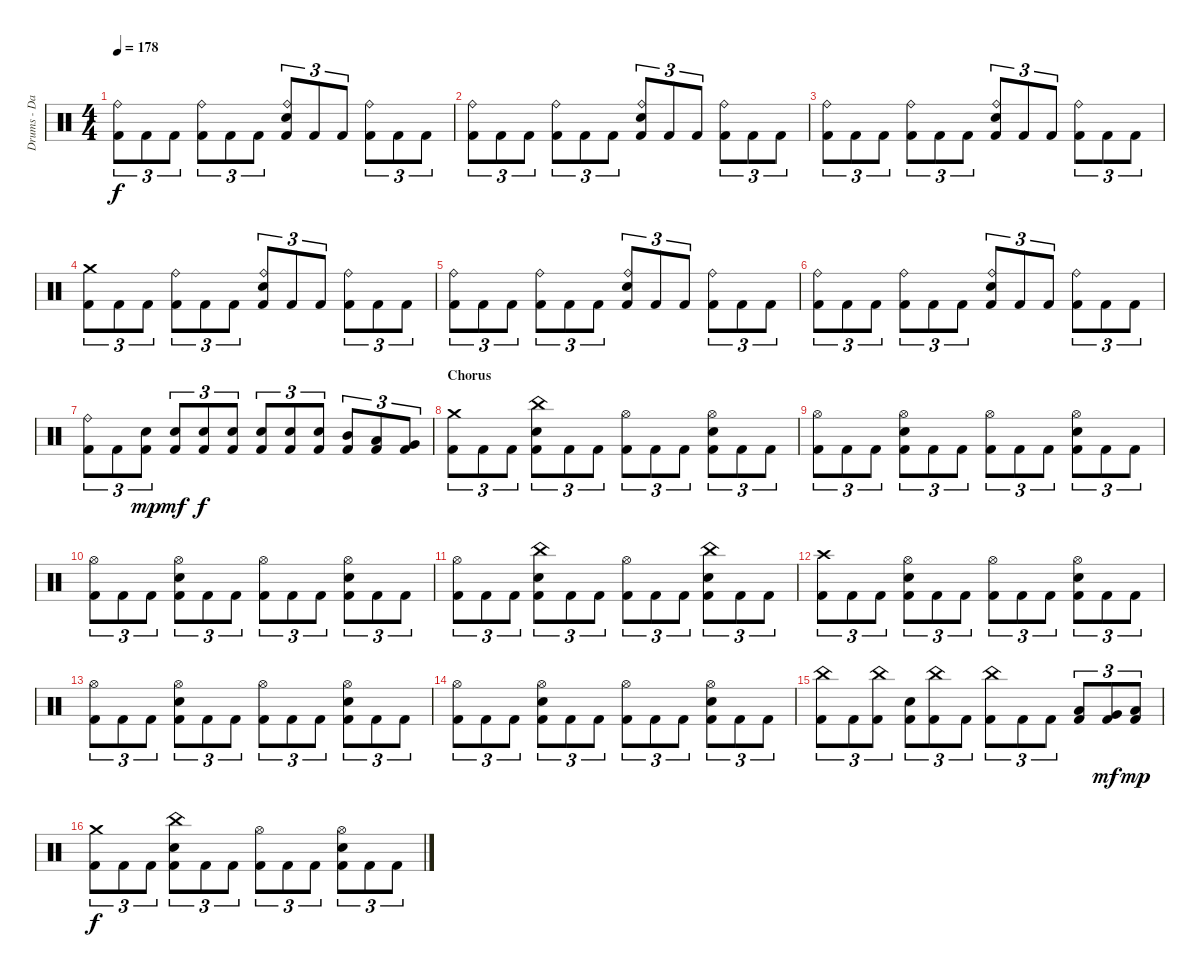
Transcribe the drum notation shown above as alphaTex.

\track ("Drums - Dan Zimmermann" "Drums - Da") {instrument percussion}
\staff {score}
\articulation defaults
\ts (4 4)
\tempo 178
\clef neutral
\ks c
("Kick (hit) 2" "Ride (bell)").8{tu (3 2) dy f} "Kick (hit) 2".8{tu (3 2)} "Kick (hit) 2".8{tu (3 2)} ("Kick (hit) 2" "Ride (bell)").8{tu (3 2)} "Kick (hit) 2".8{tu (3 2)} "Kick (hit) 2".8{tu (3 2)} ("Kick (hit) 2" "Electric Snare (hit)" "Ride (bell)").8{tu (3 2)} "Kick (hit) 2".8{tu (3 2)} "Kick (hit) 2".8{tu (3 2)} ("Kick (hit) 2" "Ride (bell)").8{tu (3 2)} "Kick (hit) 2".8{tu (3 2)} "Kick (hit) 2".8{tu (3 2)} |
("Kick (hit) 2" "Ride (bell)").8{tu (3 2)} "Kick (hit) 2".8{tu (3 2)} "Kick (hit) 2".8{tu (3 2)} ("Kick (hit) 2" "Ride (bell)").8{tu (3 2)} "Kick (hit) 2".8{tu (3 2)} "Kick (hit) 2".8{tu (3 2)} ("Kick (hit) 2" "Electric Snare (hit)" "Ride (bell)").8{tu (3 2)} "Kick (hit) 2".8{tu (3 2)} "Kick (hit) 2".8{tu (3 2)} ("Kick (hit) 2" "Ride (bell)").8{tu (3 2)} "Kick (hit) 2".8{tu (3 2)} "Kick (hit) 2".8{tu (3 2)} |
("Kick (hit) 2" "Ride (bell)").8{tu (3 2)} "Kick (hit) 2".8{tu (3 2)} "Kick (hit) 2".8{tu (3 2)} ("Kick (hit) 2" "Ride (bell)").8{tu (3 2)} "Kick (hit) 2".8{tu (3 2)} "Kick (hit) 2".8{tu (3 2)} ("Kick (hit) 2" "Electric Snare (hit)" "Ride (bell)").8{tu (3 2)} "Kick (hit) 2".8{tu (3 2)} "Kick (hit) 2".8{tu (3 2)} ("Kick (hit) 2" "Ride (bell)").8{tu (3 2)} "Kick (hit) 2".8{tu (3 2)} "Kick (hit) 2".8{tu (3 2)} |
("Kick (hit) 2" "Crash medium (hit)").8{tu (3 2)} "Kick (hit) 2".8{tu (3 2)} "Kick (hit) 2".8{tu (3 2)} ("Kick (hit) 2" "Ride (bell)").8{tu (3 2)} "Kick (hit) 2".8{tu (3 2)} "Kick (hit) 2".8{tu (3 2)} ("Kick (hit) 2" "Electric Snare (hit)" "Ride (bell)").8{tu (3 2)} "Kick (hit) 2".8{tu (3 2)} "Kick (hit) 2".8{tu (3 2)} ("Kick (hit) 2" "Ride (bell)").8{tu (3 2)} "Kick (hit) 2".8{tu (3 2)} "Kick (hit) 2".8{tu (3 2)} |
("Kick (hit) 2" "Ride (bell)").8{tu (3 2)} "Kick (hit) 2".8{tu (3 2)} "Kick (hit) 2".8{tu (3 2)} ("Kick (hit) 2" "Ride (bell)").8{tu (3 2)} "Kick (hit) 2".8{tu (3 2)} "Kick (hit) 2".8{tu (3 2)} ("Kick (hit) 2" "Electric Snare (hit)" "Ride (bell)").8{tu (3 2)} "Kick (hit) 2".8{tu (3 2)} "Kick (hit) 2".8{tu (3 2)} ("Kick (hit) 2" "Ride (bell)").8{tu (3 2)} "Kick (hit) 2".8{tu (3 2)} "Kick (hit) 2".8{tu (3 2)} |
("Kick (hit) 2" "Ride (bell)").8{tu (3 2)} "Kick (hit) 2".8{tu (3 2)} "Kick (hit) 2".8{tu (3 2)} ("Kick (hit) 2" "Ride (bell)").8{tu (3 2)} "Kick (hit) 2".8{tu (3 2)} "Kick (hit) 2".8{tu (3 2)} ("Kick (hit) 2" "Electric Snare (hit)" "Ride (bell)").8{tu (3 2)} "Kick (hit) 2".8{tu (3 2)} "Kick (hit) 2".8{tu (3 2)} ("Kick (hit) 2" "Ride (bell)").8{tu (3 2)} "Kick (hit) 2".8{tu (3 2)} "Kick (hit) 2".8{tu (3 2)} |
("Kick (hit) 2" "Ride (bell)").8{tu (3 2)} "Kick (hit) 2".8{tu (3 2)} ("Kick (hit) 2" "Electric Snare (hit)").8{tu (3 2) dy mp} ("Kick (hit) 2" "Electric Snare (hit)").8{tu (3 2) dy mf} ("Kick (hit) 2" "Electric Snare (hit)").8{tu (3 2) dy f} ("Kick (hit) 2" "Electric Snare (hit)").8{tu (3 2)} ("Kick (hit) 2" "Electric Snare (hit)").8{tu (3 2)} ("Kick (hit) 2" "Electric Snare (hit)").8{tu (3 2)} ("Kick (hit) 2" "Electric Snare (hit)").8{tu (3 2)} ("Kick (hit) 2" "Mid Tom (hit)").8{tu (3 2)} ("Kick (hit) 2" "Low Tom (hit)").8{tu (3 2)} ("Kick (hit) 2" "Very Low Tom (hit)").8{tu (3 2)} |
\section ("" "Chorus")
("Kick (hit) 2" "Crash medium (hit)").8{tu (3 2)} "Kick (hit) 2".8{tu (3 2)} "Kick (hit) 2".8{tu (3 2)} ("Kick (hit) 2" "Electric Snare (hit)" "China (hit)").8{tu (3 2)} "Kick (hit) 2".8{tu (3 2)} "Kick (hit) 2".8{tu (3 2)} ("Kick (hit) 2" "Hi-Hat (open)").8{tu (3 2)} "Kick (hit) 2".8{tu (3 2)} "Kick (hit) 2".8{tu (3 2)} ("Kick (hit) 2" "Electric Snare (hit)" "Hi-Hat (open)").8{tu (3 2)} "Kick (hit) 2".8{tu (3 2)} "Kick (hit) 2".8{tu (3 2)} |
("Kick (hit) 2" "Hi-Hat (open)").8{tu (3 2)} "Kick (hit) 2".8{tu (3 2)} "Kick (hit) 2".8{tu (3 2)} ("Kick (hit) 2" "Electric Snare (hit)" "Hi-Hat (open)").8{tu (3 2)} "Kick (hit) 2".8{tu (3 2)} "Kick (hit) 2".8{tu (3 2)} ("Kick (hit) 2" "Hi-Hat (open)").8{tu (3 2)} "Kick (hit) 2".8{tu (3 2)} "Kick (hit) 2".8{tu (3 2)} ("Kick (hit) 2" "Electric Snare (hit)" "Hi-Hat (open)").8{tu (3 2)} "Kick (hit) 2".8{tu (3 2)} "Kick (hit) 2".8{tu (3 2)} |
("Kick (hit) 2" "Hi-Hat (open)").8{tu (3 2)} "Kick (hit) 2".8{tu (3 2)} "Kick (hit) 2".8{tu (3 2)} ("Kick (hit) 2" "Electric Snare (hit)" "Hi-Hat (open)").8{tu (3 2)} "Kick (hit) 2".8{tu (3 2)} "Kick (hit) 2".8{tu (3 2)} ("Kick (hit) 2" "Hi-Hat (open)").8{tu (3 2)} "Kick (hit) 2".8{tu (3 2)} "Kick (hit) 2".8{tu (3 2)} ("Kick (hit) 2" "Electric Snare (hit)" "Hi-Hat (open)").8{tu (3 2)} "Kick (hit) 2".8{tu (3 2)} "Kick (hit) 2".8{tu (3 2)} |
("Kick (hit) 2" "Hi-Hat (open)").8{tu (3 2)} "Kick (hit) 2".8{tu (3 2)} "Kick (hit) 2".8{tu (3 2)} ("Kick (hit) 2" "Electric Snare (hit)" "China (hit)").8{tu (3 2)} "Kick (hit) 2".8{tu (3 2)} "Kick (hit) 2".8{tu (3 2)} ("Kick (hit) 2" "Hi-Hat (open)").8{tu (3 2)} "Kick (hit) 2".8{tu (3 2)} "Kick (hit) 2".8{tu (3 2)} ("Kick (hit) 2" "Electric Snare (hit)" "China (hit)").8{tu (3 2)} "Kick (hit) 2".8{tu (3 2)} "Kick (hit) 2".8{tu (3 2)} |
("Kick (hit) 2" "Crash high (hit)").8{tu (3 2)} "Kick (hit) 2".8{tu (3 2)} "Kick (hit) 2".8{tu (3 2)} ("Kick (hit) 2" "Electric Snare (hit)" "Hi-Hat (open)").8{tu (3 2)} "Kick (hit) 2".8{tu (3 2)} "Kick (hit) 2".8{tu (3 2)} ("Kick (hit) 2" "Hi-Hat (open)").8{tu (3 2)} "Kick (hit) 2".8{tu (3 2)} "Kick (hit) 2".8{tu (3 2)} ("Kick (hit) 2" "Electric Snare (hit)" "Hi-Hat (open)").8{tu (3 2)} "Kick (hit) 2".8{tu (3 2)} "Kick (hit) 2".8{tu (3 2)} |
("Kick (hit) 2" "Hi-Hat (open)").8{tu (3 2)} "Kick (hit) 2".8{tu (3 2)} "Kick (hit) 2".8{tu (3 2)} ("Kick (hit) 2" "Electric Snare (hit)" "Hi-Hat (open)").8{tu (3 2)} "Kick (hit) 2".8{tu (3 2)} "Kick (hit) 2".8{tu (3 2)} ("Kick (hit) 2" "Hi-Hat (open)").8{tu (3 2)} "Kick (hit) 2".8{tu (3 2)} "Kick (hit) 2".8{tu (3 2)} ("Kick (hit) 2" "Electric Snare (hit)" "Hi-Hat (open)").8{tu (3 2)} "Kick (hit) 2".8{tu (3 2)} "Kick (hit) 2".8{tu (3 2)} |
("Kick (hit) 2" "Hi-Hat (open)").8{tu (3 2)} "Kick (hit) 2".8{tu (3 2)} "Kick (hit) 2".8{tu (3 2)} ("Kick (hit) 2" "Electric Snare (hit)" "Hi-Hat (open)").8{tu (3 2)} "Kick (hit) 2".8{tu (3 2)} "Kick (hit) 2".8{tu (3 2)} ("Kick (hit) 2" "Hi-Hat (open)").8{tu (3 2)} "Kick (hit) 2".8{tu (3 2)} "Kick (hit) 2".8{tu (3 2)} ("Kick (hit) 2" "Electric Snare (hit)" "Hi-Hat (open)").8{tu (3 2)} "Kick (hit) 2".8{tu (3 2)} "Kick (hit) 2".8{tu (3 2)} |
("Kick (hit) 2" "China (hit)").8{tu (3 2)} "Kick (hit) 2".8{tu (3 2)} ("Kick (hit) 2" "China (hit)").8{tu (3 2)} ("Kick (hit) 2" "Electric Snare (hit)").8{tu (3 2)} ("Kick (hit) 2" "China (hit)").8{tu (3 2)} "Kick (hit) 2".8{tu (3 2)} ("Kick (hit) 2" "China (hit)").8{tu (3 2)} "Kick (hit) 2".8{tu (3 2)} "Kick (hit) 2".8{tu (3 2)} ("Kick (hit) 2" "Low Tom (hit)").8{tu (3 2)} ("Kick (hit) 2" "Very Low Tom (hit)").8{tu (3 2) dy mf} ("Kick (hit) 2" "Low Floor Tom (hit)").8{tu (3 2) dy mp} |
("Kick (hit) 2" "Crash medium (hit)").8{tu (3 2) dy f} "Kick (hit) 2".8{tu (3 2)} "Kick (hit) 2".8{tu (3 2)} ("Kick (hit) 2" "Electric Snare (hit)" "China (hit)").8{tu (3 2)} "Kick (hit) 2".8{tu (3 2)} "Kick (hit) 2".8{tu (3 2)} ("Kick (hit) 2" "Hi-Hat (open)").8{tu (3 2)} "Kick (hit) 2".8{tu (3 2)} "Kick (hit) 2".8{tu (3 2)} ("Kick (hit) 2" "Electric Snare (hit)" "Hi-Hat (open)").8{tu (3 2)} "Kick (hit) 2".8{tu (3 2)} "Kick (hit) 2".8{tu (3 2)}
